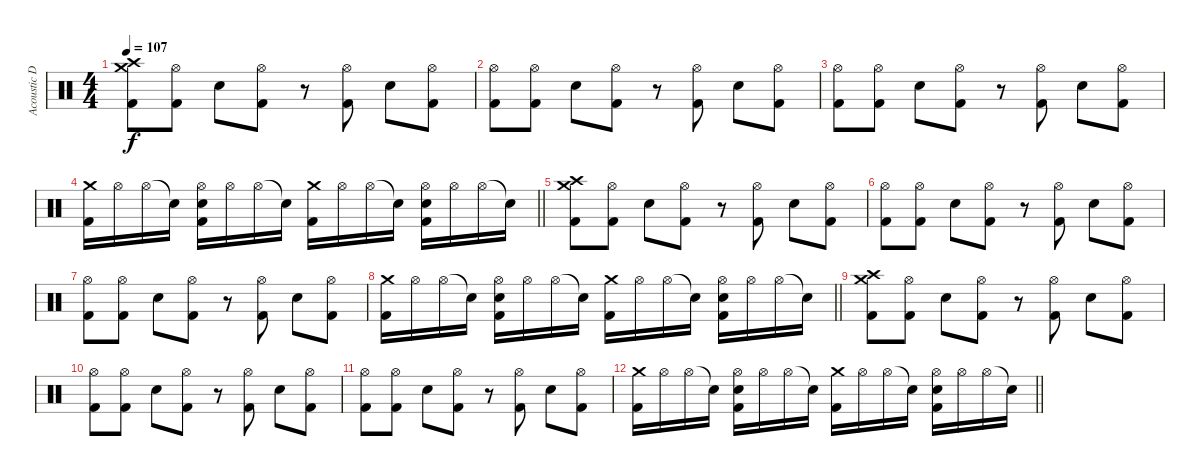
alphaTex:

\track ("Acoustic Drums" "Acoustic D") {instrument percussion}
\staff {score}
\articulation defaults
\ts (4 4)
\tempo 107
\clef neutral
\ks c
("Crash medium (hit)" "Crash high (hit)" "Kick (hit) 2").8{dy f} ("Hi-Hat (open)" "Kick (hit) 2").8 "Snare (hit) 2".8 ("Hi-Hat (open)" "Kick (hit) 2").8 r.8 ("Hi-Hat (open)" "Kick (hit) 2").8 "Snare (hit) 2".8 ("Hi-Hat (open)" "Kick (hit) 2").8 |
("Hi-Hat (open)" "Kick (hit) 2").8 ("Hi-Hat (open)" "Kick (hit) 2").8 "Snare (hit) 2".8 ("Hi-Hat (open)" "Kick (hit) 2").8 r.8 ("Hi-Hat (open)" "Kick (hit) 2").8 "Snare (hit) 2".8 ("Hi-Hat (open)" "Kick (hit) 2").8 |
("Hi-Hat (open)" "Kick (hit) 2").8 ("Hi-Hat (open)" "Kick (hit) 2").8 "Snare (hit) 2".8 ("Hi-Hat (open)" "Kick (hit) 2").8 r.8 ("Hi-Hat (open)" "Kick (hit) 2").8 "Snare (hit) 2".8 ("Hi-Hat (open)" "Kick (hit) 2").8 |
\barLineRight lightlight
("Crash medium (hit)" "Kick (hit) 2").16 "Hi-Hat (open)".16 "Hi-Hat (open)".16 "Snare (hit)"{t}.16 ("Hi-Hat (open)" "Snare (hit) 2" "Kick (hit) 2").16 "Hi-Hat (open)".16 "Hi-Hat (open)".16 "Snare (hit)"{t}.16 ("Crash medium (hit)" "Kick (hit) 2").16 "Hi-Hat (open)".16 "Hi-Hat (open)".16 "Snare (hit)"{t}.16 ("Hi-Hat (open)" "Snare (hit) 2" "Kick (hit) 2").16 "Hi-Hat (open)".16 "Hi-Hat (open)".16 "Snare (hit)"{t}.16 |
("Crash medium (hit)" "Crash high (hit)" "Kick (hit) 2").8 ("Hi-Hat (open)" "Kick (hit) 2").8 "Snare (hit) 2".8 ("Hi-Hat (open)" "Kick (hit) 2").8 r.8 ("Hi-Hat (open)" "Kick (hit) 2").8 "Snare (hit) 2".8 ("Hi-Hat (open)" "Kick (hit) 2").8 |
("Hi-Hat (open)" "Kick (hit) 2").8 ("Hi-Hat (open)" "Kick (hit) 2").8 "Snare (hit) 2".8 ("Hi-Hat (open)" "Kick (hit) 2").8 r.8 ("Hi-Hat (open)" "Kick (hit) 2").8 "Snare (hit) 2".8 ("Hi-Hat (open)" "Kick (hit) 2").8 |
("Hi-Hat (open)" "Kick (hit) 2").8 ("Hi-Hat (open)" "Kick (hit) 2").8 "Snare (hit) 2".8 ("Hi-Hat (open)" "Kick (hit) 2").8 r.8 ("Hi-Hat (open)" "Kick (hit) 2").8 "Snare (hit) 2".8 ("Hi-Hat (open)" "Kick (hit) 2").8 |
\barLineRight lightlight
("Crash medium (hit)" "Kick (hit) 2").16 "Hi-Hat (open)".16 "Hi-Hat (open)".16 "Snare (hit)"{t}.16 ("Hi-Hat (open)" "Snare (hit) 2" "Kick (hit) 2").16 "Hi-Hat (open)".16 "Hi-Hat (open)".16 "Snare (hit)"{t}.16 ("Crash medium (hit)" "Kick (hit) 2").16 "Hi-Hat (open)".16 "Hi-Hat (open)".16 "Snare (hit)"{t}.16 ("Hi-Hat (open)" "Snare (hit) 2" "Kick (hit) 2").16 "Hi-Hat (open)".16 "Hi-Hat (open)".16 "Snare (hit)"{t}.16 |
("Crash medium (hit)" "Crash high (hit)" "Kick (hit) 2").8 ("Hi-Hat (open)" "Kick (hit) 2").8 "Snare (hit) 2".8 ("Hi-Hat (open)" "Kick (hit) 2").8 r.8 ("Hi-Hat (open)" "Kick (hit) 2").8 "Snare (hit) 2".8 ("Hi-Hat (open)" "Kick (hit) 2").8 |
("Hi-Hat (open)" "Kick (hit) 2").8 ("Hi-Hat (open)" "Kick (hit) 2").8 "Snare (hit) 2".8 ("Hi-Hat (open)" "Kick (hit) 2").8 r.8 ("Hi-Hat (open)" "Kick (hit) 2").8 "Snare (hit) 2".8 ("Hi-Hat (open)" "Kick (hit) 2").8 |
("Hi-Hat (open)" "Kick (hit) 2").8 ("Hi-Hat (open)" "Kick (hit) 2").8 "Snare (hit) 2".8 ("Hi-Hat (open)" "Kick (hit) 2").8 r.8 ("Hi-Hat (open)" "Kick (hit) 2").8 "Snare (hit) 2".8 ("Hi-Hat (open)" "Kick (hit) 2").8 |
\barLineRight lightlight
("Crash medium (hit)" "Kick (hit) 2").16 "Hi-Hat (open)".16 "Hi-Hat (open)".16 "Snare (hit)"{t}.16 ("Hi-Hat (open)" "Snare (hit) 2" "Kick (hit) 2").16 "Hi-Hat (open)".16 "Hi-Hat (open)".16 "Snare (hit)"{t}.16 ("Crash medium (hit)" "Kick (hit) 2").16 "Hi-Hat (open)".16 "Hi-Hat (open)".16 "Snare (hit)"{t}.16 ("Hi-Hat (open)" "Snare (hit) 2" "Kick (hit) 2").16 "Hi-Hat (open)".16 "Hi-Hat (open)".16 "Snare (hit)"{t}.16
